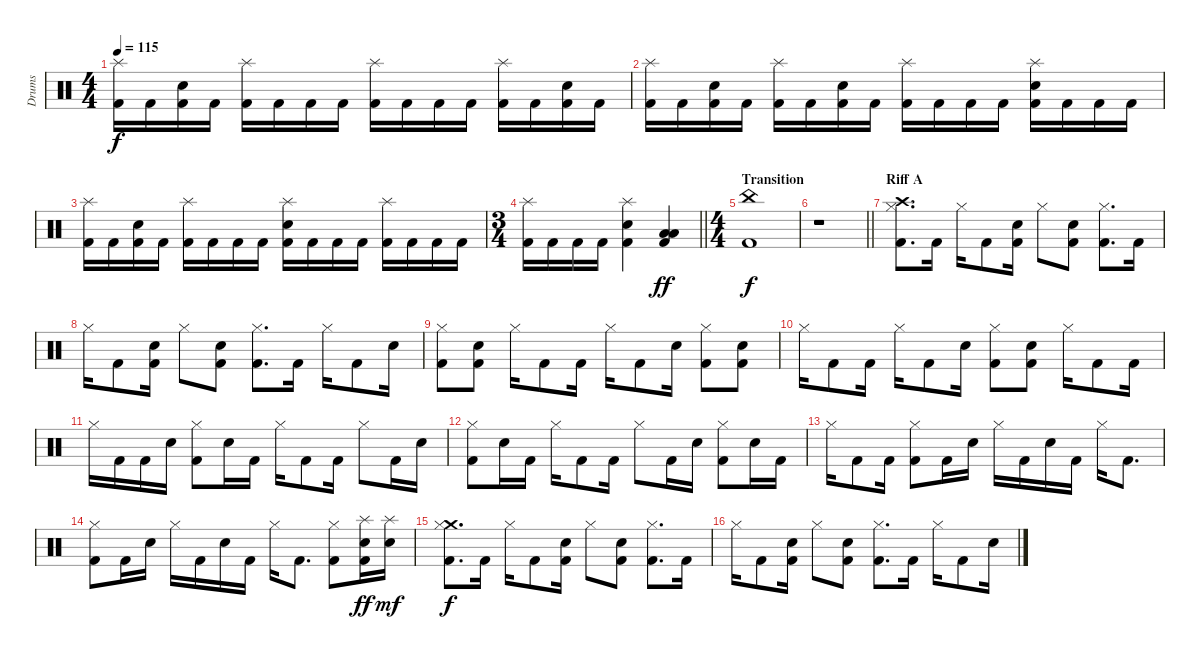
\track ("Drums" "Drums") {instrument percussion}
\staff {score}
\articulation defaults
\ts (4 4)
\tempo 115
\clef neutral
\ks c
("Splash (hit)" "Kick (hit) 2").16{dy f} "Kick (hit) 2".16 ("Snare (hit) 2" "Kick (hit) 2").16 "Kick (hit) 2".16 ("Splash (hit)" "Kick (hit) 2").16 "Kick (hit) 2".16 "Kick (hit) 2".16 "Kick (hit) 2".16 ("Splash (hit)" "Kick (hit) 2").16 "Kick (hit) 2".16 "Kick (hit) 2".16 "Kick (hit) 2".16 ("Splash (hit)" "Kick (hit) 2").16 "Kick (hit) 2".16 ("Snare (hit) 2" "Kick (hit) 2").16 "Kick (hit) 2".16 |
("Splash (hit)" "Kick (hit) 2").16 "Kick (hit) 2".16 ("Snare (hit) 2" "Kick (hit) 2").16 "Kick (hit) 2".16 ("Splash (hit)" "Kick (hit) 2").16 "Kick (hit) 2".16 ("Snare (hit) 2" "Kick (hit) 2").16 "Kick (hit) 2".16 ("Splash (hit)" "Kick (hit) 2").16 "Kick (hit) 2".16 "Kick (hit) 2".16 "Kick (hit) 2".16 ("Splash (hit)" "Snare (hit) 2" "Kick (hit) 2").16 "Kick (hit) 2".16 "Kick (hit) 2".16 "Kick (hit) 2".16 |
("Splash (hit)" "Kick (hit) 2").16 "Kick (hit) 2".16 ("Snare (hit) 2" "Kick (hit) 2").16 "Kick (hit) 2".16 ("Splash (hit)" "Kick (hit) 2").16 "Kick (hit) 2".16 "Kick (hit) 2".16 "Kick (hit) 2".16 ("Splash (hit)" "Snare (hit) 2" "Kick (hit) 2").16 "Kick (hit) 2".16 "Kick (hit) 2".16 "Kick (hit) 2".16 ("Splash (hit)" "Kick (hit) 2").16 "Kick (hit) 2".16 "Kick (hit) 2".16 "Kick (hit) 2".16 |
\ts (3 4)
\barLineRight lightlight
("Splash (hit)" "Kick (hit) 2").16 "Kick (hit) 2".16 "Kick (hit) 2".16 "Kick (hit) 2".16 ("Splash (hit)" "Snare (hit) 2" "Kick (hit) 2").4 ("Low Tom (hit)" "Low Floor Tom (hit)" "Kick (hit) 2").4{dy ff} |
\ts (4 4)
\section ("" "Transition")
("China (hit)" "Kick (hit) 2").1{dy f} |
\barLineRight lightlight
r.1 |
\section ("" "Riff A")
("Crash high (hit)" "Hi-Hat (closed)" "Kick (hit) 2").8{d} "Kick (hit) 2".16 "Hi-Hat (closed)".16 "Kick (hit) 2".8 ("Snare (hit) 2" "Kick (hit) 2").16 "Hi-Hat (closed)".8 ("Snare (hit) 2" "Kick (hit) 2").8 ("Hi-Hat (closed)" "Kick (hit) 2").8{d} "Kick (hit) 2".16 |
"Hi-Hat (closed)".16 "Kick (hit) 2".8 ("Snare (hit) 2" "Kick (hit) 2").16 "Hi-Hat (closed)".8 ("Snare (hit) 2" "Kick (hit) 2").8 ("Hi-Hat (closed)" "Kick (hit) 2").8{d} "Kick (hit) 2".16 "Hi-Hat (closed)".16 "Kick (hit) 2".8 "Snare (hit) 2".16 |
("Hi-Hat (closed)" "Kick (hit) 2").8 ("Snare (hit) 2" "Kick (hit) 2").8 "Hi-Hat (closed)".16 "Kick (hit) 2".8 "Kick (hit) 2".16 "Hi-Hat (closed)".16 "Kick (hit) 2".8 "Snare (hit) 2".16 ("Hi-Hat (closed)" "Kick (hit) 2").8 ("Snare (hit) 2" "Kick (hit) 2").8 |
"Hi-Hat (closed)".16 "Kick (hit) 2".8 "Kick (hit) 2".16 "Hi-Hat (closed)".16 "Kick (hit) 2".8 "Snare (hit) 2".16 ("Hi-Hat (closed)" "Kick (hit) 2").8 ("Snare (hit) 2" "Kick (hit) 2").8 "Hi-Hat (closed)".16 "Kick (hit) 2".8 "Kick (hit) 2".16 |
"Hi-Hat (closed)".16 "Kick (hit) 2".16 "Kick (hit) 2".16 "Snare (hit) 2".16 ("Hi-Hat (closed)" "Kick (hit) 2").8 "Snare (hit) 2".16 "Kick (hit) 2".16 "Hi-Hat (closed)".16 "Kick (hit) 2".8 "Kick (hit) 2".16 "Hi-Hat (closed)".8 "Kick (hit) 2".16 "Snare (hit) 2".16 |
("Hi-Hat (closed)" "Kick (hit) 2").8 "Snare (hit) 2".16 "Kick (hit) 2".16 "Hi-Hat (closed)".16 "Kick (hit) 2".8 "Kick (hit) 2".16 "Hi-Hat (closed)".8 "Kick (hit) 2".16 "Snare (hit) 2".16 ("Hi-Hat (closed)" "Kick (hit) 2").8 "Snare (hit) 2".16 "Kick (hit) 2".16 |
"Hi-Hat (closed)".16 "Kick (hit) 2".8 "Kick (hit) 2".16 ("Hi-Hat (closed)" "Kick (hit) 2").8 "Kick (hit) 2".16 "Snare (hit) 2".16 "Hi-Hat (closed)".16 "Kick (hit) 2".16 "Snare (hit) 2".16 "Kick (hit) 2".16 "Hi-Hat (closed)".16 "Kick (hit) 2".8{d} |
("Hi-Hat (closed)" "Kick (hit) 2").8 "Kick (hit) 2".16 "Snare (hit) 2".16 "Hi-Hat (closed)".16 "Kick (hit) 2".16 "Snare (hit) 2".16 "Kick (hit) 2".16 "Hi-Hat (closed)".16 "Kick (hit) 2".8{d} ("Hi-Hat (closed)" "Kick (hit) 2").8 ("Splash (hit)" "Snare (hit) 2" "Kick (hit) 2").16{dy ff} ("Splash (hit)" "Snare (hit) 2").16{dy mf} |
("Crash medium (hit)" "Hi-Hat (closed)" "Kick (hit) 2").8{d dy f} "Kick (hit) 2".16 "Hi-Hat (closed)".16 "Kick (hit) 2".8 ("Snare (hit) 2" "Kick (hit) 2").16 "Hi-Hat (closed)".8 ("Snare (hit) 2" "Kick (hit) 2").8 ("Hi-Hat (closed)" "Kick (hit) 2").8{d} "Kick (hit) 2".16 |
"Hi-Hat (closed)".16 "Kick (hit) 2".8 ("Snare (hit) 2" "Kick (hit) 2").16 "Hi-Hat (closed)".8 ("Snare (hit) 2" "Kick (hit) 2").8 ("Hi-Hat (closed)" "Kick (hit) 2").8{d} "Kick (hit) 2".16 "Hi-Hat (closed)".16 "Kick (hit) 2".8 "Snare (hit) 2".16
